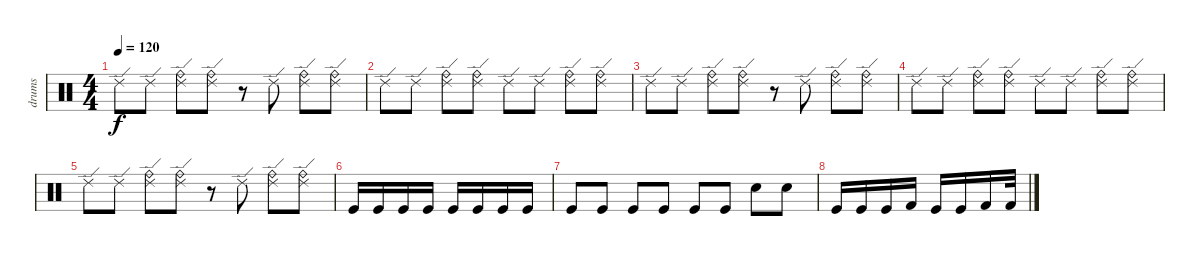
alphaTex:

\track ("drums" "drums") {instrument percussion}
\staff {score}
\articulation defaults
\ts (4 4)
\tempo 120
\clef neutral
\ks c "Ride (edge) 2".8{dy f} "Ride (edge) 2".8
("Ride (bell)" "Ride (edge) 2").8 ("Ride (bell)" "Ride (edge) 2").8 r.8 "Ride (edge) 2".8 ("Ride (bell)" "Ride (edge) 2").8 ("Ride (bell)" "Ride (edge) 2").8 |
"Ride (edge) 2".8 "Ride (edge) 2".8 ("Ride (bell)" "Ride (edge) 2").8 ("Ride (bell)" "Ride (edge) 2").8 "Ride (edge) 2".8 "Ride (edge) 2".8 ("Ride (bell)" "Ride (edge) 2").8 ("Ride (bell)" "Ride (edge) 2").8 |
"Ride (edge) 2".8 "Ride (edge) 2".8 ("Ride (bell)" "Ride (edge) 2").8 ("Ride (bell)" "Ride (edge) 2").8 r.8 "Ride (edge) 2".8 ("Ride (bell)" "Ride (edge) 2").8 ("Ride (bell)" "Ride (edge) 2").8 |
"Ride (edge) 2".8 "Ride (edge) 2".8 ("Ride (bell)" "Ride (edge) 2").8 ("Ride (bell)" "Ride (edge) 2").8 "Ride (edge) 2".8 "Ride (edge) 2".8 ("Ride (bell)" "Ride (edge) 2").8 ("Ride (bell)" "Ride (edge) 2").8 |
"Ride (edge) 2".8 "Ride (edge) 2".8 ("Ride (bell)" "Ride (edge) 2").8 ("Ride (bell)" "Ride (edge) 2").8 r.8 "Ride (edge) 2".8 ("Ride (bell)" "Ride (edge) 2").8 ("Ride (bell)" "Ride (edge) 2").8 |
"Kick (hit)".16 "Kick (hit)".16 "Kick (hit)".16 "Kick (hit)".16 "Kick (hit)".16 "Kick (hit)".16 "Kick (hit)".16 "Kick (hit)".16 |
"Kick (hit)".8 "Kick (hit)".8 "Kick (hit)".8 "Kick (hit)".8 "Kick (hit)".8 "Kick (hit)".8 "Snare (hit)".8 "Snare (hit)".8 |
"Kick (hit)".16 "Kick (hit)".16 "Kick (hit)".16 "Kick (hit) 2".16 "Kick (hit)".16 "Kick (hit)".16 "Kick (hit) 2".16 "Kick (hit) 2".32
